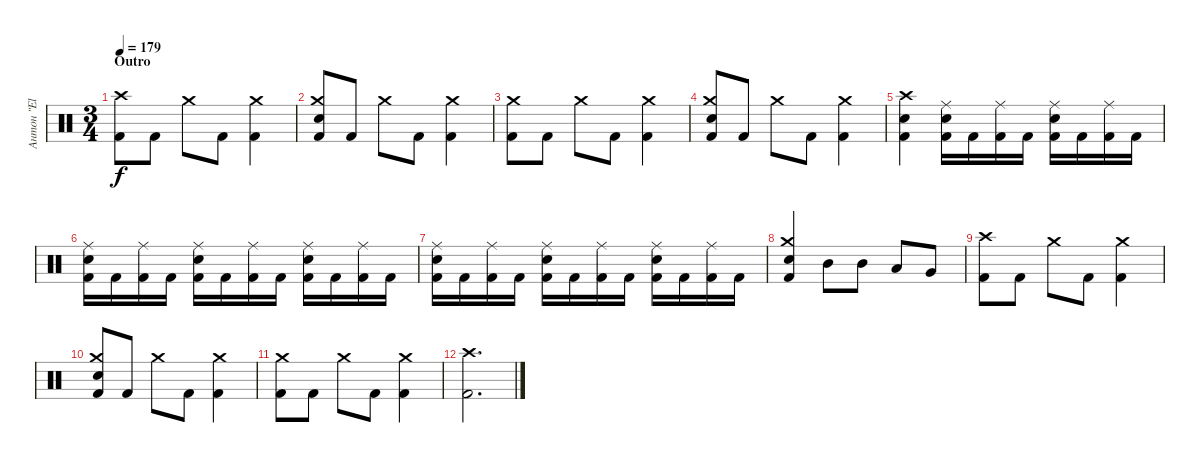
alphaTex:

\track ("Антон \"El Bastardo\" Смольянин" "Антон \"El ") {instrument percussion}
\staff {score}
\articulation defaults
\ts (3 4)
\section ("" "Outro")
\tempo 179
\clef neutral
\ks c
("Crash high (hit)" "Kick (hit) 2").8{dy f} "Kick (hit) 2".8 "Crash medium (hit)".8 "Kick (hit) 2".8 ("Crash medium (hit)" "Kick (hit) 2").4 |
("Crash medium (hit)" "Electric Snare (hit)" "Kick (hit) 2").8 "Kick (hit) 2".8 "Crash medium (hit)".8 "Kick (hit) 2".8 ("Crash medium (hit)" "Kick (hit) 2").4 |
("Crash medium (hit)" "Kick (hit) 2").8 "Kick (hit) 2".8 "Crash medium (hit)".8 "Kick (hit) 2".8 ("Crash medium (hit)" "Kick (hit) 2").4 |
("Crash medium (hit)" "Electric Snare (hit)" "Kick (hit) 2").8 "Kick (hit) 2".8 "Crash medium (hit)".8 "Kick (hit) 2".8 ("Crash medium (hit)" "Kick (hit) 2").4 |
("Crash high (hit)" "Electric Snare (hit)" "Kick (hit) 2").4 ("Ride (middle)" "Electric Snare (hit)" "Kick (hit) 2").16 "Kick (hit) 2".16 ("Ride (middle)" "Kick (hit) 2").16 "Kick (hit) 2".16 ("Ride (middle)" "Electric Snare (hit)" "Kick (hit) 2").16 "Kick (hit) 2".16 ("Ride (middle)" "Kick (hit) 2").16 "Kick (hit) 2".16 |
("Ride (middle)" "Electric Snare (hit)" "Kick (hit) 2").16 "Kick (hit) 2".16 ("Ride (middle)" "Kick (hit) 2").16 "Kick (hit) 2".16 ("Ride (middle)" "Electric Snare (hit)" "Kick (hit) 2").16 "Kick (hit) 2".16 ("Ride (middle)" "Kick (hit) 2").16 "Kick (hit) 2".16 ("Ride (middle)" "Electric Snare (hit)" "Kick (hit) 2").16 "Kick (hit) 2".16 ("Ride (middle)" "Kick (hit) 2").16 "Kick (hit) 2".16 |
("Ride (middle)" "Electric Snare (hit)" "Kick (hit) 2").16 "Kick (hit) 2".16 ("Ride (middle)" "Kick (hit) 2").16 "Kick (hit) 2".16 ("Ride (middle)" "Electric Snare (hit)" "Kick (hit) 2").16 "Kick (hit) 2".16 ("Ride (middle)" "Kick (hit) 2").16 "Kick (hit) 2".16 ("Ride (middle)" "Electric Snare (hit)" "Kick (hit) 2").16 "Kick (hit) 2".16 ("Ride (middle)" "Kick (hit) 2").16 "Kick (hit) 2".16 |
("Crash medium (hit)" "Electric Snare (hit)" "Kick (hit) 2").4 "Mid Tom (hit)".8 "Mid Tom (hit)".8 "Low Tom (hit)".8 "Very Low Tom (hit)".8 |
("Crash high (hit)" "Kick (hit) 2").8 "Kick (hit) 2".8 "Crash medium (hit)".8 "Kick (hit) 2".8 ("Crash medium (hit)" "Kick (hit) 2").4 |
("Crash medium (hit)" "Electric Snare (hit)" "Kick (hit) 2").8 "Kick (hit) 2".8 "Crash medium (hit)".8 "Kick (hit) 2".8 ("Crash medium (hit)" "Kick (hit) 2").4 |
("Crash medium (hit)" "Kick (hit) 2").8 "Kick (hit) 2".8 "Crash medium (hit)".8 "Kick (hit) 2".8 ("Crash medium (hit)" "Kick (hit) 2").4 |
("Crash high (hit)" "Kick (hit) 2").2{d}
